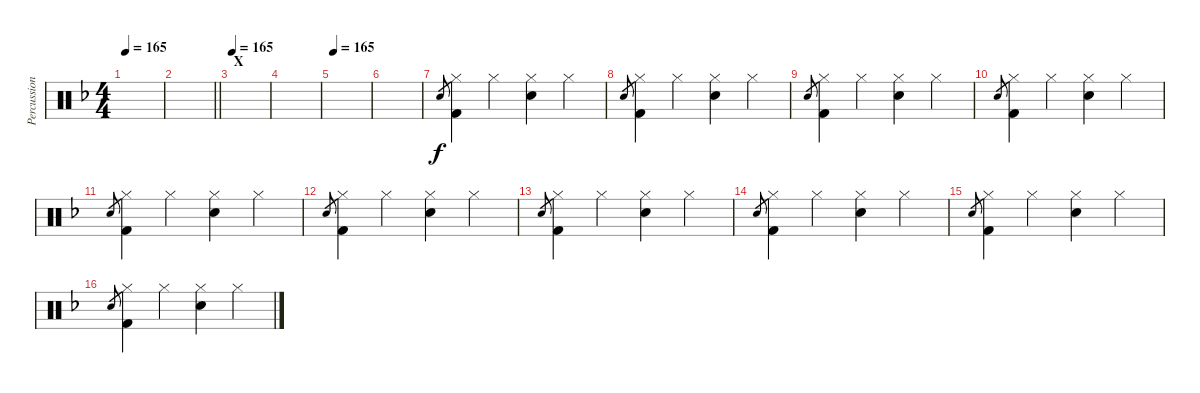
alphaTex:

\track ("Percussion [Nick Mason]" "Percussion") {instrument percussion}
\staff {score}
\articulation defaults
\ts (4 4)
\tempo 165
\clef neutral
\ks dminor
|
\barLineRight lightlight
|
\section ("" "X")
\tempo 165
|
|
\tempo 165
|
|
"Snare (hit) 2".8{gr} ("Hi-Hat (closed)" "Kick (hit) 2").4 "Hi-Hat (closed)".4 ("Hi-Hat (closed)" "Snare (hit) 2").4 "Hi-Hat (closed)".4 |
"Snare (hit) 2".8{gr} ("Hi-Hat (closed)" "Kick (hit) 2").4 "Hi-Hat (closed)".4 ("Hi-Hat (closed)" "Snare (hit) 2").4 "Hi-Hat (closed)".4 |
"Snare (hit) 2".8{gr} ("Hi-Hat (closed)" "Kick (hit) 2").4 "Hi-Hat (closed)".4 ("Hi-Hat (closed)" "Snare (hit) 2").4 "Hi-Hat (closed)".4 |
"Snare (hit) 2".8{gr} ("Hi-Hat (closed)" "Kick (hit) 2").4 "Hi-Hat (closed)".4 ("Hi-Hat (closed)" "Snare (hit) 2").4 "Hi-Hat (closed)".4 |
"Snare (hit) 2".8{gr} ("Hi-Hat (closed)" "Kick (hit) 2").4 "Hi-Hat (closed)".4 ("Hi-Hat (closed)" "Snare (hit) 2").4 "Hi-Hat (closed)".4 |
"Snare (hit) 2".8{gr} ("Hi-Hat (closed)" "Kick (hit) 2").4 "Hi-Hat (closed)".4 ("Hi-Hat (closed)" "Snare (hit) 2").4 "Hi-Hat (closed)".4 |
"Snare (hit) 2".8{gr} ("Hi-Hat (closed)" "Kick (hit) 2").4 "Hi-Hat (closed)".4 ("Hi-Hat (closed)" "Snare (hit) 2").4 "Hi-Hat (closed)".4 |
"Snare (hit) 2".8{gr} ("Hi-Hat (closed)" "Kick (hit) 2").4 "Hi-Hat (closed)".4 ("Hi-Hat (closed)" "Snare (hit) 2").4 "Hi-Hat (closed)".4 |
"Snare (hit) 2".8{gr} ("Hi-Hat (closed)" "Kick (hit) 2").4 "Hi-Hat (closed)".4 ("Hi-Hat (closed)" "Snare (hit) 2").4 "Hi-Hat (closed)".4 |
"Snare (hit) 2".8{gr} ("Hi-Hat (closed)" "Kick (hit) 2").4 "Hi-Hat (closed)".4 ("Hi-Hat (closed)" "Snare (hit) 2").4 "Hi-Hat (closed)".4
